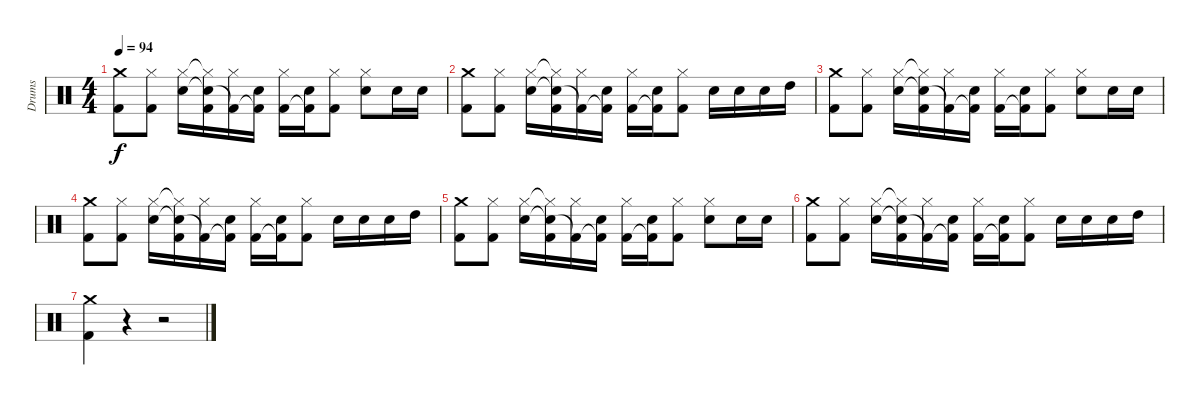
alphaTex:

\track ("Drums" "Drums") {instrument percussion}
\staff {score}
\articulation defaults
\ts (4 4)
\tempo 94
\clef neutral
\ks c
("Crash medium (hit)" "Kick (hit) 2").8{dy f} ("Hi-Hat (closed)" "Kick (hit) 2").8 ("Hi-Hat (closed)" "Electric Snare (hit)").16 ("Hi-Hat (closed)"{t} "Electric Snare (hit)"{t} "Kick (hit) 2").16 ("Hi-Hat (closed)" "Kick (hit) 2"{t}).16 ("Electric Snare (hit)" "Kick (hit) 2"{t}).16 ("Hi-Hat (closed)" "Kick (hit) 2").16 ("Electric Snare (hit)" "Kick (hit) 2"{t}).16 ("Hi-Hat (closed)" "Kick (hit) 2").8 ("Hi-Hat (closed)" "Electric Snare (hit)").8 "Electric Snare (hit)".16 "Electric Snare (hit)".16 |
("Crash medium (hit)" "Kick (hit) 2").8 ("Hi-Hat (closed)" "Kick (hit) 2").8 ("Hi-Hat (closed)" "Electric Snare (hit)").16 ("Hi-Hat (closed)"{t} "Electric Snare (hit)"{t} "Kick (hit) 2").16 ("Hi-Hat (closed)" "Kick (hit) 2"{t}).16 ("Electric Snare (hit)" "Kick (hit) 2"{t}).16 ("Hi-Hat (closed)" "Kick (hit) 2").16 ("Electric Snare (hit)" "Kick (hit) 2"{t}).16 ("Hi-Hat (closed)" "Kick (hit) 2").8 "Electric Snare (hit)".16 "Electric Snare (hit)".16 "Electric Snare (hit)".16 "High Tom (hit)".16 |
("Crash medium (hit)" "Kick (hit) 2").8 ("Hi-Hat (closed)" "Kick (hit) 2").8 ("Hi-Hat (closed)" "Electric Snare (hit)").16 ("Hi-Hat (closed)"{t} "Electric Snare (hit)"{t} "Kick (hit) 2").16 ("Hi-Hat (closed)" "Kick (hit) 2"{t}).16 ("Electric Snare (hit)" "Kick (hit) 2"{t}).16 ("Hi-Hat (closed)" "Kick (hit) 2").16 ("Electric Snare (hit)" "Kick (hit) 2"{t}).16 ("Hi-Hat (closed)" "Kick (hit) 2").8 ("Hi-Hat (closed)" "Electric Snare (hit)").8 "Electric Snare (hit)".16 "Electric Snare (hit)".16 |
("Crash medium (hit)" "Kick (hit) 2").8 ("Hi-Hat (closed)" "Kick (hit) 2").8 ("Hi-Hat (closed)" "Electric Snare (hit)").16 ("Hi-Hat (closed)"{t} "Electric Snare (hit)"{t} "Kick (hit) 2").16 ("Hi-Hat (closed)" "Kick (hit) 2"{t}).16 ("Electric Snare (hit)" "Kick (hit) 2"{t}).16 ("Hi-Hat (closed)" "Kick (hit) 2").16 ("Electric Snare (hit)" "Kick (hit) 2"{t}).16 ("Hi-Hat (closed)" "Kick (hit) 2").8 "Electric Snare (hit)".16 "Electric Snare (hit)".16 "Electric Snare (hit)".16 "High Tom (hit)".16 |
("Crash medium (hit)" "Kick (hit) 2").8 ("Hi-Hat (closed)" "Kick (hit) 2").8 ("Hi-Hat (closed)" "Electric Snare (hit)").16 ("Hi-Hat (closed)"{t} "Electric Snare (hit)"{t} "Kick (hit) 2").16 ("Hi-Hat (closed)" "Kick (hit) 2"{t}).16 ("Electric Snare (hit)" "Kick (hit) 2"{t}).16 ("Hi-Hat (closed)" "Kick (hit) 2").16 ("Electric Snare (hit)" "Kick (hit) 2"{t}).16 ("Hi-Hat (closed)" "Kick (hit) 2").8 ("Hi-Hat (closed)" "Electric Snare (hit)").8 "Electric Snare (hit)".16 "Electric Snare (hit)".16 |
("Crash medium (hit)" "Kick (hit) 2").8 ("Hi-Hat (closed)" "Kick (hit) 2").8 ("Hi-Hat (closed)" "Electric Snare (hit)").16 ("Hi-Hat (closed)"{t} "Electric Snare (hit)"{t} "Kick (hit) 2").16 ("Hi-Hat (closed)" "Kick (hit) 2"{t}).16 ("Electric Snare (hit)" "Kick (hit) 2"{t}).16 ("Hi-Hat (closed)" "Kick (hit) 2").16 ("Electric Snare (hit)" "Kick (hit) 2"{t}).16 ("Hi-Hat (closed)" "Kick (hit) 2").8 "Electric Snare (hit)".16 "Electric Snare (hit)".16 "Electric Snare (hit)".16 "High Tom (hit)".16 |
("Crash medium (hit)" "Kick (hit) 2").4 r.4 r.2
